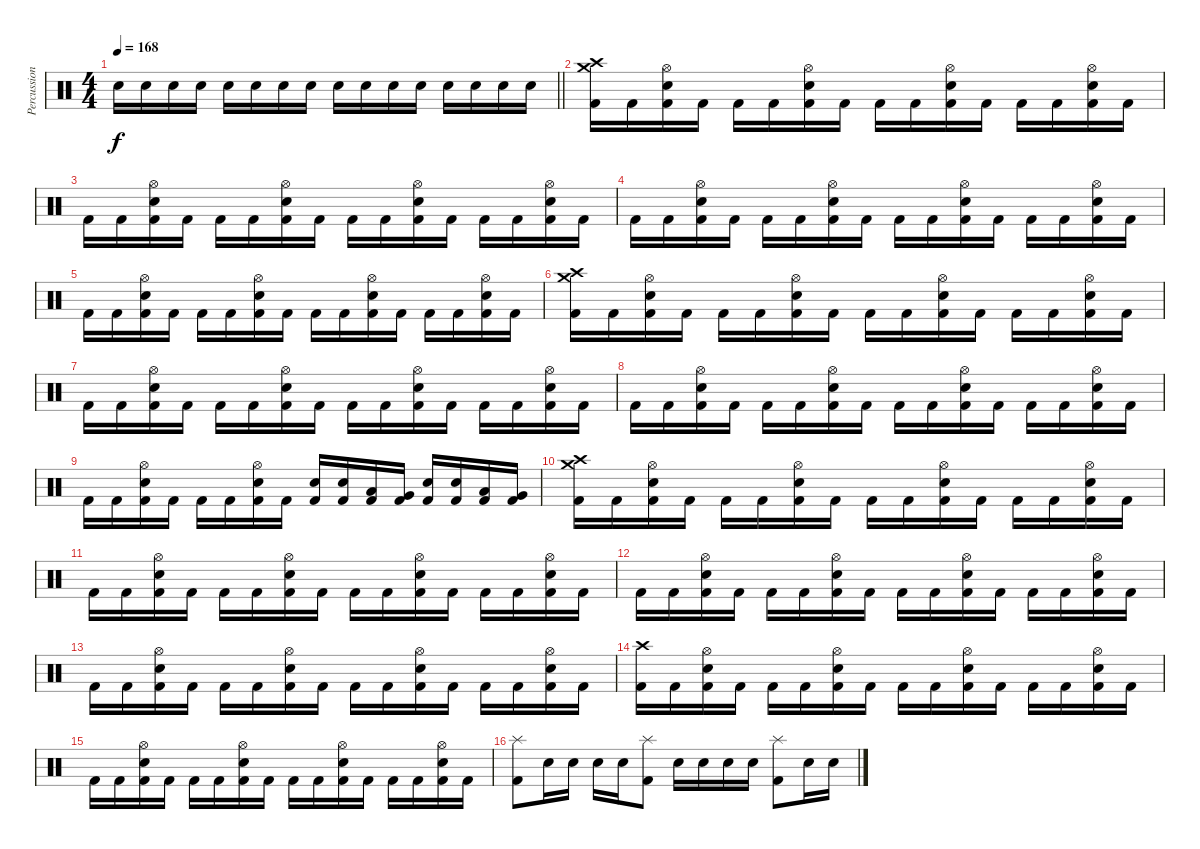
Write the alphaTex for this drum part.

\track ("Percussions" "Percussion") {instrument percussion}
\staff {score}
\articulation defaults
\ts (4 4)
\tempo 168
\clef neutral
\barLineRight lightlight
\ks c "Snare (hit) 2".16{dy f volume 2} "Snare (hit) 2".16{volume 16} "Snare (hit) 2".16 "Snare (hit) 2".16 "Snare (hit) 2".16 "Snare (hit) 2".16 "Snare (hit) 2".16 "Snare (hit) 2".16 "Snare (hit) 2".16 "Snare (hit) 2".16 "Snare (hit) 2".16 "Snare (hit) 2".16 "Snare (hit) 2".16 "Snare (hit) 2".16 "Snare (hit) 2".16 "Snare (hit) 2".16
|
("Crash medium (hit)" "Crash high (hit)" "Kick (hit) 2").16 "Kick (hit) 2".16 ("Hi-Hat (open)" "Snare (hit) 2" "Kick (hit) 2").16 "Kick (hit) 2".16 "Kick (hit) 2".16 "Kick (hit) 2".16 ("Hi-Hat (open)" "Snare (hit) 2" "Kick (hit) 2").16 "Kick (hit) 2".16 "Kick (hit) 2".16 "Kick (hit) 2".16 ("Hi-Hat (open)" "Snare (hit) 2" "Kick (hit) 2").16 "Kick (hit) 2".16 "Kick (hit) 2".16 "Kick (hit) 2".16 ("Hi-Hat (open)" "Snare (hit) 2" "Kick (hit) 2").16 "Kick (hit) 2".16 |
"Kick (hit) 2".16 "Kick (hit) 2".16 ("Hi-Hat (open)" "Snare (hit) 2" "Kick (hit) 2").16 "Kick (hit) 2".16 "Kick (hit) 2".16 "Kick (hit) 2".16 ("Hi-Hat (open)" "Snare (hit) 2" "Kick (hit) 2").16 "Kick (hit) 2".16 "Kick (hit) 2".16 "Kick (hit) 2".16 ("Hi-Hat (open)" "Snare (hit) 2" "Kick (hit) 2").16 "Kick (hit) 2".16 "Kick (hit) 2".16 "Kick (hit) 2".16 ("Hi-Hat (open)" "Snare (hit) 2" "Kick (hit) 2").16 "Kick (hit) 2".16 |
"Kick (hit) 2".16 "Kick (hit) 2".16 ("Hi-Hat (open)" "Snare (hit) 2" "Kick (hit) 2").16 "Kick (hit) 2".16 "Kick (hit) 2".16 "Kick (hit) 2".16 ("Hi-Hat (open)" "Snare (hit) 2" "Kick (hit) 2").16 "Kick (hit) 2".16 "Kick (hit) 2".16 "Kick (hit) 2".16 ("Hi-Hat (open)" "Snare (hit) 2" "Kick (hit) 2").16 "Kick (hit) 2".16 "Kick (hit) 2".16 "Kick (hit) 2".16 ("Hi-Hat (open)" "Snare (hit) 2" "Kick (hit) 2").16 "Kick (hit) 2".16 |
"Kick (hit) 2".16 "Kick (hit) 2".16 ("Hi-Hat (open)" "Snare (hit) 2" "Kick (hit) 2").16 "Kick (hit) 2".16 "Kick (hit) 2".16 "Kick (hit) 2".16 ("Hi-Hat (open)" "Snare (hit) 2" "Kick (hit) 2").16 "Kick (hit) 2".16 "Kick (hit) 2".16 "Kick (hit) 2".16 ("Hi-Hat (open)" "Snare (hit) 2" "Kick (hit) 2").16 "Kick (hit) 2".16 "Kick (hit) 2".16 "Kick (hit) 2".16 ("Hi-Hat (open)" "Snare (hit) 2" "Kick (hit) 2").16 "Kick (hit) 2".16 |
("Crash medium (hit)" "Crash high (hit)" "Kick (hit) 2").16 "Kick (hit) 2".16 ("Hi-Hat (open)" "Snare (hit) 2" "Kick (hit) 2").16 "Kick (hit) 2".16 "Kick (hit) 2".16 "Kick (hit) 2".16 ("Hi-Hat (open)" "Snare (hit) 2" "Kick (hit) 2").16 "Kick (hit) 2".16 "Kick (hit) 2".16 "Kick (hit) 2".16 ("Hi-Hat (open)" "Snare (hit) 2" "Kick (hit) 2").16 "Kick (hit) 2".16 "Kick (hit) 2".16 "Kick (hit) 2".16 ("Hi-Hat (open)" "Snare (hit) 2" "Kick (hit) 2").16 "Kick (hit) 2".16 |
"Kick (hit) 2".16 "Kick (hit) 2".16 ("Hi-Hat (open)" "Snare (hit) 2" "Kick (hit) 2").16 "Kick (hit) 2".16 "Kick (hit) 2".16 "Kick (hit) 2".16 ("Hi-Hat (open)" "Snare (hit) 2" "Kick (hit) 2").16 "Kick (hit) 2".16 "Kick (hit) 2".16 "Kick (hit) 2".16 ("Hi-Hat (open)" "Snare (hit) 2" "Kick (hit) 2").16 "Kick (hit) 2".16 "Kick (hit) 2".16 "Kick (hit) 2".16 ("Hi-Hat (open)" "Snare (hit) 2" "Kick (hit) 2").16 "Kick (hit) 2".16 |
"Kick (hit) 2".16 "Kick (hit) 2".16 ("Hi-Hat (open)" "Snare (hit) 2" "Kick (hit) 2").16 "Kick (hit) 2".16 "Kick (hit) 2".16 "Kick (hit) 2".16 ("Hi-Hat (open)" "Snare (hit) 2" "Kick (hit) 2").16 "Kick (hit) 2".16 "Kick (hit) 2".16 "Kick (hit) 2".16 ("Hi-Hat (open)" "Snare (hit) 2" "Kick (hit) 2").16 "Kick (hit) 2".16 "Kick (hit) 2".16 "Kick (hit) 2".16 ("Hi-Hat (open)" "Snare (hit) 2" "Kick (hit) 2").16 "Kick (hit) 2".16 |
"Kick (hit) 2".16 "Kick (hit) 2".16 ("Hi-Hat (open)" "Snare (hit) 2" "Kick (hit) 2").16 "Kick (hit) 2".16 "Kick (hit) 2".16 "Kick (hit) 2".16 ("Hi-Hat (open)" "Snare (hit) 2" "Kick (hit) 2").16 "Kick (hit) 2".16 ("Snare (hit) 2" "Kick (hit) 2").16 ("Snare (hit) 2" "Kick (hit) 2").16 ("Low Tom (hit)" "Kick (hit) 2").16 ("Very Low Tom (hit)" "Kick (hit) 2").16 ("Snare (hit) 2" "Kick (hit) 2").16 ("Snare (hit) 2" "Kick (hit) 2").16 ("Low Tom (hit)" "Kick (hit) 2").16 ("Very Low Tom (hit)" "Kick (hit) 2").16 |
("Crash medium (hit)" "Crash high (hit)" "Kick (hit) 2").16 "Kick (hit) 2".16 ("Hi-Hat (open)" "Snare (hit) 2" "Kick (hit) 2").16 "Kick (hit) 2".16 "Kick (hit) 2".16 "Kick (hit) 2".16 ("Hi-Hat (open)" "Snare (hit) 2" "Kick (hit) 2").16 "Kick (hit) 2".16 "Kick (hit) 2".16 "Kick (hit) 2".16 ("Hi-Hat (open)" "Snare (hit) 2" "Kick (hit) 2").16 "Kick (hit) 2".16 "Kick (hit) 2".16 "Kick (hit) 2".16 ("Hi-Hat (open)" "Snare (hit) 2" "Kick (hit) 2").16 "Kick (hit) 2".16 |
"Kick (hit) 2".16 "Kick (hit) 2".16 ("Hi-Hat (open)" "Snare (hit) 2" "Kick (hit) 2").16 "Kick (hit) 2".16 "Kick (hit) 2".16 "Kick (hit) 2".16 ("Hi-Hat (open)" "Snare (hit) 2" "Kick (hit) 2").16 "Kick (hit) 2".16 "Kick (hit) 2".16 "Kick (hit) 2".16 ("Hi-Hat (open)" "Snare (hit) 2" "Kick (hit) 2").16 "Kick (hit) 2".16 "Kick (hit) 2".16 "Kick (hit) 2".16 ("Hi-Hat (open)" "Snare (hit) 2" "Kick (hit) 2").16 "Kick (hit) 2".16 |
"Kick (hit) 2".16 "Kick (hit) 2".16 ("Hi-Hat (open)" "Snare (hit) 2" "Kick (hit) 2").16 "Kick (hit) 2".16 "Kick (hit) 2".16 "Kick (hit) 2".16 ("Hi-Hat (open)" "Snare (hit) 2" "Kick (hit) 2").16 "Kick (hit) 2".16 "Kick (hit) 2".16 "Kick (hit) 2".16 ("Hi-Hat (open)" "Snare (hit) 2" "Kick (hit) 2").16 "Kick (hit) 2".16 "Kick (hit) 2".16 "Kick (hit) 2".16 ("Hi-Hat (open)" "Snare (hit) 2" "Kick (hit) 2").16 "Kick (hit) 2".16 |
"Kick (hit) 2".16 "Kick (hit) 2".16 ("Hi-Hat (open)" "Snare (hit) 2" "Kick (hit) 2").16 "Kick (hit) 2".16 "Kick (hit) 2".16 "Kick (hit) 2".16 ("Hi-Hat (open)" "Snare (hit) 2" "Kick (hit) 2").16 "Kick (hit) 2".16 "Kick (hit) 2".16 "Kick (hit) 2".16 ("Hi-Hat (open)" "Snare (hit) 2" "Kick (hit) 2").16 "Kick (hit) 2".16 "Kick (hit) 2".16 "Kick (hit) 2".16 ("Hi-Hat (open)" "Snare (hit) 2" "Kick (hit) 2").16 "Kick (hit) 2".16 |
("Crash high (hit)" "Kick (hit) 2").16 "Kick (hit) 2".16 ("Hi-Hat (open)" "Snare (hit) 2" "Kick (hit) 2").16 "Kick (hit) 2".16 "Kick (hit) 2".16 "Kick (hit) 2".16 ("Hi-Hat (open)" "Snare (hit) 2" "Kick (hit) 2").16 "Kick (hit) 2".16 "Kick (hit) 2".16 "Kick (hit) 2".16 ("Hi-Hat (open)" "Snare (hit) 2" "Kick (hit) 2").16 "Kick (hit) 2".16 "Kick (hit) 2".16 "Kick (hit) 2".16 ("Hi-Hat (open)" "Snare (hit) 2" "Kick (hit) 2").16 "Kick (hit) 2".16 |
"Kick (hit) 2".16 "Kick (hit) 2".16 ("Hi-Hat (open)" "Snare (hit) 2" "Kick (hit) 2").16 "Kick (hit) 2".16 "Kick (hit) 2".16 "Kick (hit) 2".16 ("Hi-Hat (open)" "Snare (hit) 2" "Kick (hit) 2").16 "Kick (hit) 2".16 "Kick (hit) 2".16 "Kick (hit) 2".16 ("Hi-Hat (open)" "Snare (hit) 2" "Kick (hit) 2").16 "Kick (hit) 2".16 "Kick (hit) 2".16 "Kick (hit) 2".16 ("Hi-Hat (open)" "Snare (hit) 2" "Kick (hit) 2").16 "Kick (hit) 2".16 |
("Splash (hit)" "Kick (hit) 2").8 "Snare (hit) 2".16 "Snare (hit) 2".16 "Snare (hit) 2".16 "Snare (hit) 2".16 ("Splash (hit)" "Kick (hit) 2").8 "Snare (hit) 2".16 "Snare (hit) 2".16 "Snare (hit) 2".16 "Snare (hit) 2".16 ("Splash (hit)" "Kick (hit) 2").8 "Snare (hit) 2".16 "Snare (hit) 2".16
